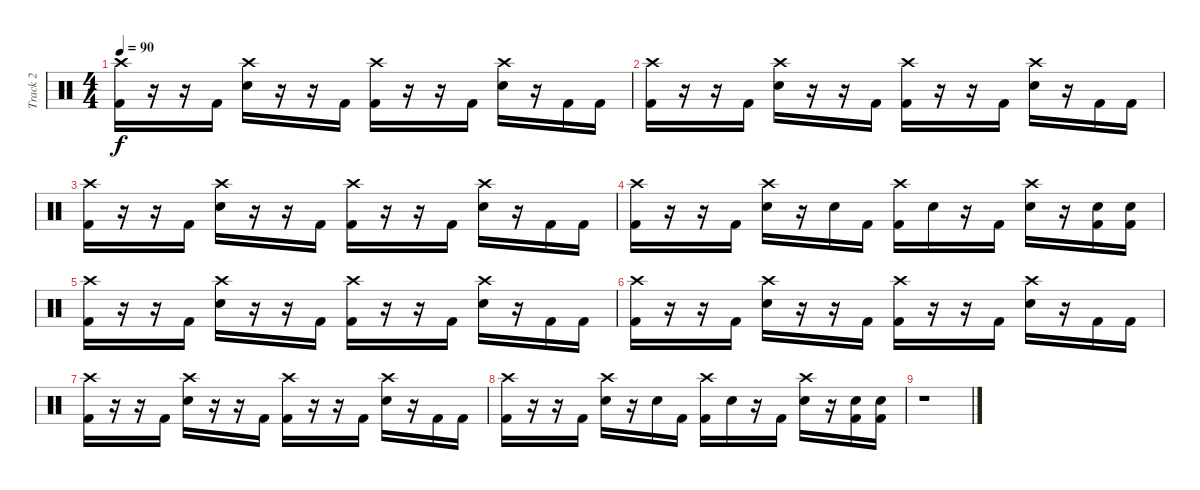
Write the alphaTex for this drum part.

\track ("Track 2" "Track 2") {instrument percussion}
\staff {score}
\articulation defaults
\ts (4 4)
\tempo 90
\clef neutral
\ks c
("Kick (hit) 2" "Crash high (hit)").16{dy f} r.16 r.16 "Kick (hit) 2".16 ("Electric Snare (hit)" "Crash high (hit)").16 r.16 r.16 "Kick (hit) 2".16 ("Kick (hit) 2" "Crash high (hit)").16 r.16 r.16 "Kick (hit) 2".16 ("Electric Snare (hit)" "Crash high (hit)").16 r.16 "Kick (hit) 2".16 "Kick (hit) 2".16 |
("Kick (hit) 2" "Crash high (hit)").16 r.16 r.16 "Kick (hit) 2".16 ("Electric Snare (hit)" "Crash high (hit)").16 r.16 r.16 "Kick (hit) 2".16 ("Kick (hit) 2" "Crash high (hit)").16 r.16 r.16 "Kick (hit) 2".16 ("Electric Snare (hit)" "Crash high (hit)").16 r.16 "Kick (hit) 2".16 "Kick (hit) 2".16 |
("Kick (hit) 2" "Crash high (hit)").16 r.16 r.16 "Kick (hit) 2".16 ("Electric Snare (hit)" "Crash high (hit)").16 r.16 r.16 "Kick (hit) 2".16 ("Kick (hit) 2" "Crash high (hit)").16 r.16 r.16 "Kick (hit) 2".16 ("Electric Snare (hit)" "Crash high (hit)").16 r.16 "Kick (hit) 2".16 "Kick (hit) 2".16 |
("Kick (hit) 2" "Crash high (hit)").16 r.16 r.16 "Kick (hit) 2".16 ("Electric Snare (hit)" "Crash high (hit)").16 r.16 "Electric Snare (hit)".16 "Kick (hit) 2".16 ("Kick (hit) 2" "Crash high (hit)").16 "Electric Snare (hit)".16 r.16 "Kick (hit) 2".16 ("Electric Snare (hit)" "Crash high (hit)").16 r.16 ("Kick (hit) 2" "Electric Snare (hit)").16 ("Kick (hit) 2" "Electric Snare (hit)").16 |
("Kick (hit) 2" "Crash high (hit)").16 r.16 r.16 "Kick (hit) 2".16 ("Electric Snare (hit)" "Crash high (hit)").16 r.16 r.16 "Kick (hit) 2".16 ("Kick (hit) 2" "Crash high (hit)").16 r.16 r.16 "Kick (hit) 2".16 ("Electric Snare (hit)" "Crash high (hit)").16 r.16 "Kick (hit) 2".16 "Kick (hit) 2".16 |
("Kick (hit) 2" "Crash high (hit)").16 r.16 r.16 "Kick (hit) 2".16 ("Electric Snare (hit)" "Crash high (hit)").16 r.16 r.16 "Kick (hit) 2".16 ("Kick (hit) 2" "Crash high (hit)").16 r.16 r.16 "Kick (hit) 2".16 ("Electric Snare (hit)" "Crash high (hit)").16 r.16 "Kick (hit) 2".16 "Kick (hit) 2".16 |
("Kick (hit) 2" "Crash high (hit)").16 r.16 r.16 "Kick (hit) 2".16 ("Electric Snare (hit)" "Crash high (hit)").16 r.16 r.16 "Kick (hit) 2".16 ("Kick (hit) 2" "Crash high (hit)").16 r.16 r.16 "Kick (hit) 2".16 ("Electric Snare (hit)" "Crash high (hit)").16 r.16 "Kick (hit) 2".16 "Kick (hit) 2".16 |
("Kick (hit) 2" "Crash high (hit)").16 r.16 r.16 "Kick (hit) 2".16 ("Electric Snare (hit)" "Crash high (hit)").16 r.16 "Electric Snare (hit)".16 "Kick (hit) 2".16 ("Kick (hit) 2" "Crash high (hit)").16 "Electric Snare (hit)".16 r.16 "Kick (hit) 2".16 ("Electric Snare (hit)" "Crash high (hit)").16 r.16 ("Kick (hit) 2" "Electric Snare (hit)").16 ("Kick (hit) 2" "Electric Snare (hit)").16 |
r.1
